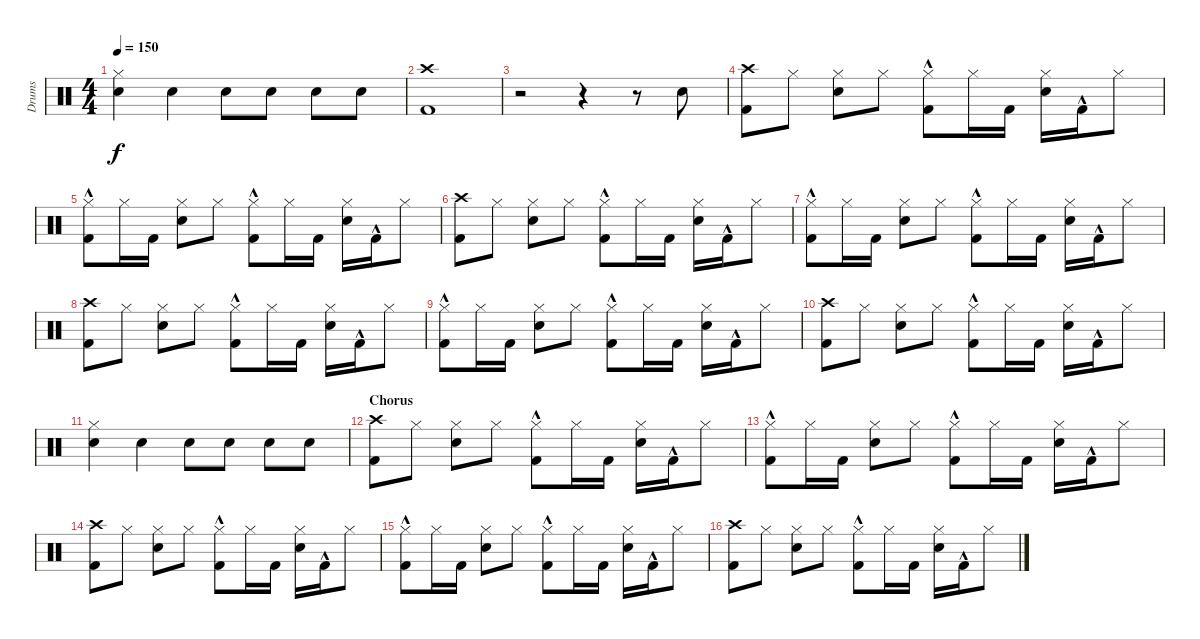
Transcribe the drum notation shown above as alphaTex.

\track ("Drums" "Drums") {instrument percussion}
\staff {score}
\articulation defaults
\ts (4 4)
\tempo 150
\clef neutral
\ks c
("Hi-Hat (closed)" "Electric Snare (hit)").4{dy f} "Electric Snare (hit)".4 "Electric Snare (hit)".8 "Electric Snare (hit)".8 "Electric Snare (hit)".8 "Electric Snare (hit)".8 |
("Crash high (hit)" "Kick (hit) 2").1 |
r.2 r.4 r.8 "Electric Snare (hit)".8 |
("Crash high (hit)" "Kick (hit) 2").8 "Hi-Hat (closed)".8 ("Hi-Hat (closed)" "Electric Snare (hit)").8 "Hi-Hat (closed)".8 ("Hi-Hat (closed)" "Kick (hit) 2"{hac}).8 "Hi-Hat (closed)".16 "Kick (hit) 2".16 ("Hi-Hat (closed)" "Electric Snare (hit)").16 "Kick (hit) 2"{hac}.16 "Hi-Hat (closed)".8 |
("Hi-Hat (closed)" "Kick (hit) 2"{hac}).8 "Hi-Hat (closed)".16 "Kick (hit) 2".16 ("Hi-Hat (closed)" "Electric Snare (hit)").8 "Hi-Hat (closed)".8 ("Hi-Hat (closed)" "Kick (hit) 2"{hac}).8 "Hi-Hat (closed)".16 "Kick (hit) 2".16 ("Hi-Hat (closed)" "Electric Snare (hit)").16 "Kick (hit) 2"{hac}.16 "Hi-Hat (closed)".8 |
("Crash high (hit)" "Kick (hit) 2").8 "Hi-Hat (closed)".8 ("Hi-Hat (closed)" "Electric Snare (hit)").8 "Hi-Hat (closed)".8 ("Hi-Hat (closed)" "Kick (hit) 2"{hac}).8 "Hi-Hat (closed)".16 "Kick (hit) 2".16 ("Hi-Hat (closed)" "Electric Snare (hit)").16 "Kick (hit) 2"{hac}.16 "Hi-Hat (closed)".8 |
("Hi-Hat (closed)" "Kick (hit) 2"{hac}).8 "Hi-Hat (closed)".16 "Kick (hit) 2".16 ("Hi-Hat (closed)" "Electric Snare (hit)").8 "Hi-Hat (closed)".8 ("Hi-Hat (closed)" "Kick (hit) 2"{hac}).8 "Hi-Hat (closed)".16 "Kick (hit) 2".16 ("Hi-Hat (closed)" "Electric Snare (hit)").16 "Kick (hit) 2"{hac}.16 "Hi-Hat (closed)".8 |
("Crash high (hit)" "Kick (hit) 2").8 "Hi-Hat (closed)".8 ("Hi-Hat (closed)" "Electric Snare (hit)").8 "Hi-Hat (closed)".8 ("Hi-Hat (closed)" "Kick (hit) 2"{hac}).8 "Hi-Hat (closed)".16 "Kick (hit) 2".16 ("Hi-Hat (closed)" "Electric Snare (hit)").16 "Kick (hit) 2"{hac}.16 "Hi-Hat (closed)".8 |
("Hi-Hat (closed)" "Kick (hit) 2"{hac}).8 "Hi-Hat (closed)".16 "Kick (hit) 2".16 ("Hi-Hat (closed)" "Electric Snare (hit)").8 "Hi-Hat (closed)".8 ("Hi-Hat (closed)" "Kick (hit) 2"{hac}).8 "Hi-Hat (closed)".16 "Kick (hit) 2".16 ("Hi-Hat (closed)" "Electric Snare (hit)").16 "Kick (hit) 2"{hac}.16 "Hi-Hat (closed)".8 |
("Crash high (hit)" "Kick (hit) 2").8 "Hi-Hat (closed)".8 ("Hi-Hat (closed)" "Electric Snare (hit)").8 "Hi-Hat (closed)".8 ("Hi-Hat (closed)" "Kick (hit) 2"{hac}).8 "Hi-Hat (closed)".16 "Kick (hit) 2".16 ("Hi-Hat (closed)" "Electric Snare (hit)").16 "Kick (hit) 2"{hac}.16 "Hi-Hat (closed)".8 |
("Hi-Hat (closed)" "Electric Snare (hit)").4 "Electric Snare (hit)".4 "Electric Snare (hit)".8 "Electric Snare (hit)".8 "Electric Snare (hit)".8 "Electric Snare (hit)".8 |
\section ("" "Chorus")
("Crash high (hit)" "Kick (hit) 2").8 "Hi-Hat (closed)".8 ("Hi-Hat (closed)" "Electric Snare (hit)").8 "Hi-Hat (closed)".8 ("Hi-Hat (closed)" "Kick (hit) 2"{hac}).8 "Hi-Hat (closed)".16 "Kick (hit) 2".16 ("Hi-Hat (closed)" "Electric Snare (hit)").16 "Kick (hit) 2"{hac}.16 "Hi-Hat (closed)".8 |
("Hi-Hat (closed)" "Kick (hit) 2"{hac}).8 "Hi-Hat (closed)".16 "Kick (hit) 2".16 ("Hi-Hat (closed)" "Electric Snare (hit)").8 "Hi-Hat (closed)".8 ("Hi-Hat (closed)" "Kick (hit) 2"{hac}).8 "Hi-Hat (closed)".16 "Kick (hit) 2".16 ("Hi-Hat (closed)" "Electric Snare (hit)").16 "Kick (hit) 2"{hac}.16 "Hi-Hat (closed)".8 |
("Crash high (hit)" "Kick (hit) 2").8 "Hi-Hat (closed)".8 ("Hi-Hat (closed)" "Electric Snare (hit)").8 "Hi-Hat (closed)".8 ("Hi-Hat (closed)" "Kick (hit) 2"{hac}).8 "Hi-Hat (closed)".16 "Kick (hit) 2".16 ("Hi-Hat (closed)" "Electric Snare (hit)").16 "Kick (hit) 2"{hac}.16 "Hi-Hat (closed)".8 |
("Hi-Hat (closed)" "Kick (hit) 2"{hac}).8 "Hi-Hat (closed)".16 "Kick (hit) 2".16 ("Hi-Hat (closed)" "Electric Snare (hit)").8 "Hi-Hat (closed)".8 ("Hi-Hat (closed)" "Kick (hit) 2"{hac}).8 "Hi-Hat (closed)".16 "Kick (hit) 2".16 ("Hi-Hat (closed)" "Electric Snare (hit)").16 "Kick (hit) 2"{hac}.16 "Hi-Hat (closed)".8 |
("Crash high (hit)" "Kick (hit) 2").8 "Hi-Hat (closed)".8 ("Hi-Hat (closed)" "Electric Snare (hit)").8 "Hi-Hat (closed)".8 ("Hi-Hat (closed)" "Kick (hit) 2"{hac}).8 "Hi-Hat (closed)".16 "Kick (hit) 2".16 ("Hi-Hat (closed)" "Electric Snare (hit)").16 "Kick (hit) 2"{hac}.16 "Hi-Hat (closed)".8
